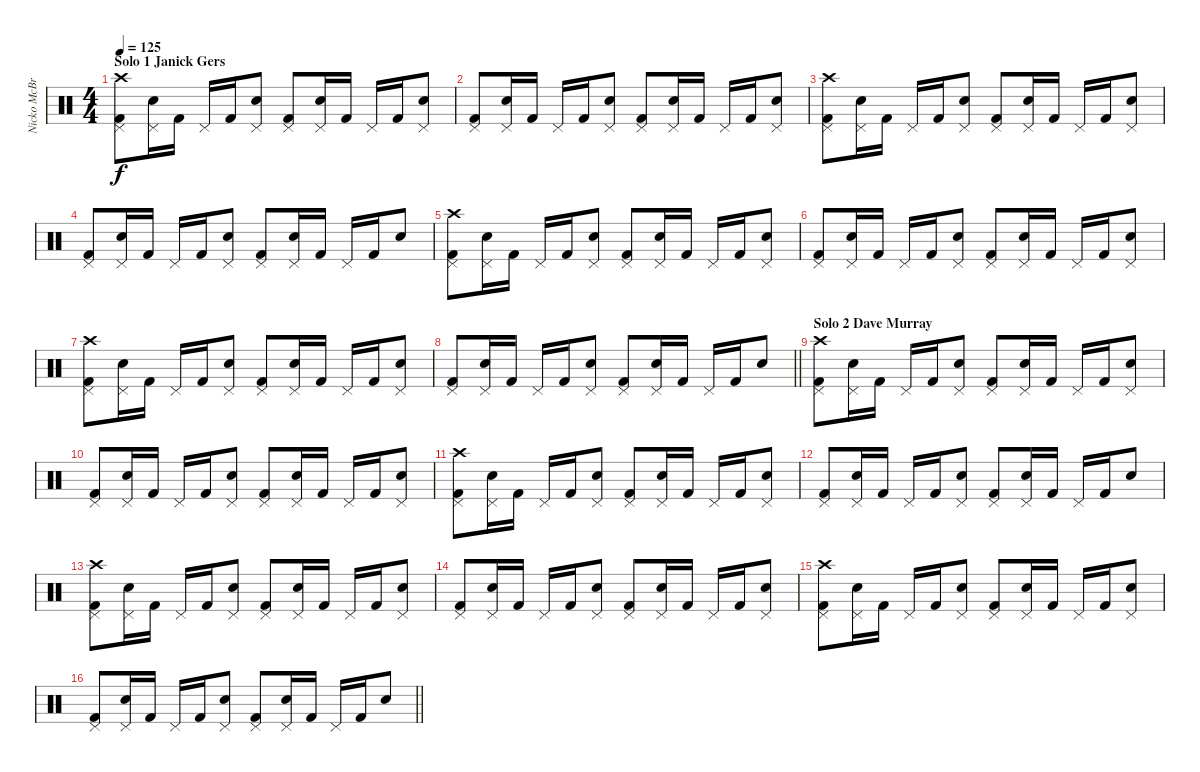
\track ("Nicko McBrain" "Nicko McBr") {instrument percussion}
\staff {score}
\articulation defaults
\ts (4 4)
\section ("" "Solo 1 Janick Gers")
\tempo 125
\clef neutral
\ks c
("Kick (hit) 2" "Pedal Hi-Hat (hit)" "Crash high (hit)").8{dy f} ("Snare (hit) 2" "Pedal Hi-Hat (hit)").16 "Kick (hit) 2".16 "Pedal Hi-Hat (hit)".16 "Kick (hit) 2".16 ("Snare (hit) 2" "Pedal Hi-Hat (hit)").8 ("Kick (hit) 2" "Pedal Hi-Hat (hit)").8 ("Snare (hit) 2" "Pedal Hi-Hat (hit)").16 "Kick (hit) 2".16 "Pedal Hi-Hat (hit)".16 "Kick (hit) 2".16 ("Snare (hit) 2" "Pedal Hi-Hat (hit)").8 |
("Kick (hit) 2" "Pedal Hi-Hat (hit)").8 ("Snare (hit) 2" "Pedal Hi-Hat (hit)").16 "Kick (hit) 2".16 "Pedal Hi-Hat (hit)".16 "Kick (hit) 2".16 ("Snare (hit) 2" "Pedal Hi-Hat (hit)").8 ("Kick (hit) 2" "Pedal Hi-Hat (hit)").8 ("Snare (hit) 2" "Pedal Hi-Hat (hit)").16 "Kick (hit) 2".16 "Pedal Hi-Hat (hit)".16 "Kick (hit) 2".16 ("Snare (hit) 2" "Pedal Hi-Hat (hit)").8 |
("Kick (hit) 2" "Pedal Hi-Hat (hit)" "Crash high (hit)").8 ("Snare (hit) 2" "Pedal Hi-Hat (hit)").16 "Kick (hit) 2".16 "Pedal Hi-Hat (hit)".16 "Kick (hit) 2".16 ("Snare (hit) 2" "Pedal Hi-Hat (hit)").8 ("Kick (hit) 2" "Pedal Hi-Hat (hit)").8 ("Snare (hit) 2" "Pedal Hi-Hat (hit)").16 "Kick (hit) 2".16 "Pedal Hi-Hat (hit)".16 "Kick (hit) 2".16 ("Snare (hit) 2" "Pedal Hi-Hat (hit)").8 |
("Kick (hit) 2" "Pedal Hi-Hat (hit)").8 ("Snare (hit) 2" "Pedal Hi-Hat (hit)").16 "Kick (hit) 2".16 "Pedal Hi-Hat (hit)".16 "Kick (hit) 2".16 ("Snare (hit) 2" "Pedal Hi-Hat (hit)").8 ("Kick (hit) 2" "Pedal Hi-Hat (hit)").8 ("Snare (hit) 2" "Pedal Hi-Hat (hit)").16 "Kick (hit) 2".16 "Pedal Hi-Hat (hit)".16 "Kick (hit) 2".16 "Snare (hit) 2".8 |
("Kick (hit) 2" "Pedal Hi-Hat (hit)" "Crash high (hit)").8 ("Snare (hit) 2" "Pedal Hi-Hat (hit)").16 "Kick (hit) 2".16 "Pedal Hi-Hat (hit)".16 "Kick (hit) 2".16 ("Snare (hit) 2" "Pedal Hi-Hat (hit)").8 ("Kick (hit) 2" "Pedal Hi-Hat (hit)").8 ("Snare (hit) 2" "Pedal Hi-Hat (hit)").16 "Kick (hit) 2".16 "Pedal Hi-Hat (hit)".16 "Kick (hit) 2".16 ("Snare (hit) 2" "Pedal Hi-Hat (hit)").8 |
("Kick (hit) 2" "Pedal Hi-Hat (hit)").8 ("Snare (hit) 2" "Pedal Hi-Hat (hit)").16 "Kick (hit) 2".16 "Pedal Hi-Hat (hit)".16 "Kick (hit) 2".16 ("Snare (hit) 2" "Pedal Hi-Hat (hit)").8 ("Kick (hit) 2" "Pedal Hi-Hat (hit)").8 ("Snare (hit) 2" "Pedal Hi-Hat (hit)").16 "Kick (hit) 2".16 "Pedal Hi-Hat (hit)".16 "Kick (hit) 2".16 ("Snare (hit) 2" "Pedal Hi-Hat (hit)").8 |
("Kick (hit) 2" "Pedal Hi-Hat (hit)" "Crash high (hit)").8 ("Snare (hit) 2" "Pedal Hi-Hat (hit)").16 "Kick (hit) 2".16 "Pedal Hi-Hat (hit)".16 "Kick (hit) 2".16 ("Snare (hit) 2" "Pedal Hi-Hat (hit)").8 ("Kick (hit) 2" "Pedal Hi-Hat (hit)").8 ("Snare (hit) 2" "Pedal Hi-Hat (hit)").16 "Kick (hit) 2".16 "Pedal Hi-Hat (hit)".16 "Kick (hit) 2".16 ("Snare (hit) 2" "Pedal Hi-Hat (hit)").8 |
\barLineRight lightlight
("Kick (hit) 2" "Pedal Hi-Hat (hit)").8 ("Snare (hit) 2" "Pedal Hi-Hat (hit)").16 "Kick (hit) 2".16 "Pedal Hi-Hat (hit)".16 "Kick (hit) 2".16 ("Snare (hit) 2" "Pedal Hi-Hat (hit)").8 ("Kick (hit) 2" "Pedal Hi-Hat (hit)").8 ("Snare (hit) 2" "Pedal Hi-Hat (hit)").16 "Kick (hit) 2".16 "Pedal Hi-Hat (hit)".16 "Kick (hit) 2".16 "Snare (hit) 2".8 |
\section ("" "Solo 2 Dave Murray")
("Kick (hit) 2" "Pedal Hi-Hat (hit)" "Crash high (hit)").8 ("Snare (hit) 2" "Pedal Hi-Hat (hit)").16 "Kick (hit) 2".16 "Pedal Hi-Hat (hit)".16 "Kick (hit) 2".16 ("Snare (hit) 2" "Pedal Hi-Hat (hit)").8 ("Kick (hit) 2" "Pedal Hi-Hat (hit)").8 ("Snare (hit) 2" "Pedal Hi-Hat (hit)").16 "Kick (hit) 2".16 "Pedal Hi-Hat (hit)".16 "Kick (hit) 2".16 ("Snare (hit) 2" "Pedal Hi-Hat (hit)").8 |
("Kick (hit) 2" "Pedal Hi-Hat (hit)").8 ("Snare (hit) 2" "Pedal Hi-Hat (hit)").16 "Kick (hit) 2".16 "Pedal Hi-Hat (hit)".16 "Kick (hit) 2".16 ("Snare (hit) 2" "Pedal Hi-Hat (hit)").8 ("Kick (hit) 2" "Pedal Hi-Hat (hit)").8 ("Snare (hit) 2" "Pedal Hi-Hat (hit)").16 "Kick (hit) 2".16 "Pedal Hi-Hat (hit)".16 "Kick (hit) 2".16 ("Snare (hit) 2" "Pedal Hi-Hat (hit)").8 |
("Kick (hit) 2" "Pedal Hi-Hat (hit)" "Crash high (hit)").8 ("Snare (hit) 2" "Pedal Hi-Hat (hit)").16 "Kick (hit) 2".16 "Pedal Hi-Hat (hit)".16 "Kick (hit) 2".16 ("Snare (hit) 2" "Pedal Hi-Hat (hit)").8 ("Kick (hit) 2" "Pedal Hi-Hat (hit)").8 ("Snare (hit) 2" "Pedal Hi-Hat (hit)").16 "Kick (hit) 2".16 "Pedal Hi-Hat (hit)".16 "Kick (hit) 2".16 ("Snare (hit) 2" "Pedal Hi-Hat (hit)").8 |
("Kick (hit) 2" "Pedal Hi-Hat (hit)").8 ("Snare (hit) 2" "Pedal Hi-Hat (hit)").16 "Kick (hit) 2".16 "Pedal Hi-Hat (hit)".16 "Kick (hit) 2".16 ("Snare (hit) 2" "Pedal Hi-Hat (hit)").8 ("Kick (hit) 2" "Pedal Hi-Hat (hit)").8 ("Snare (hit) 2" "Pedal Hi-Hat (hit)").16 "Kick (hit) 2".16 "Pedal Hi-Hat (hit)".16 "Kick (hit) 2".16 "Snare (hit) 2".8 |
("Kick (hit) 2" "Pedal Hi-Hat (hit)" "Crash high (hit)").8 ("Snare (hit) 2" "Pedal Hi-Hat (hit)").16 "Kick (hit) 2".16 "Pedal Hi-Hat (hit)".16 "Kick (hit) 2".16 ("Snare (hit) 2" "Pedal Hi-Hat (hit)").8 ("Kick (hit) 2" "Pedal Hi-Hat (hit)").8 ("Snare (hit) 2" "Pedal Hi-Hat (hit)").16 "Kick (hit) 2".16 "Pedal Hi-Hat (hit)".16 "Kick (hit) 2".16 ("Snare (hit) 2" "Pedal Hi-Hat (hit)").8 |
("Kick (hit) 2" "Pedal Hi-Hat (hit)").8 ("Snare (hit) 2" "Pedal Hi-Hat (hit)").16 "Kick (hit) 2".16 "Pedal Hi-Hat (hit)".16 "Kick (hit) 2".16 ("Snare (hit) 2" "Pedal Hi-Hat (hit)").8 ("Kick (hit) 2" "Pedal Hi-Hat (hit)").8 ("Snare (hit) 2" "Pedal Hi-Hat (hit)").16 "Kick (hit) 2".16 "Pedal Hi-Hat (hit)".16 "Kick (hit) 2".16 ("Snare (hit) 2" "Pedal Hi-Hat (hit)").8 |
("Kick (hit) 2" "Pedal Hi-Hat (hit)" "Crash high (hit)").8 ("Snare (hit) 2" "Pedal Hi-Hat (hit)").16 "Kick (hit) 2".16 "Pedal Hi-Hat (hit)".16 "Kick (hit) 2".16 ("Snare (hit) 2" "Pedal Hi-Hat (hit)").8 ("Kick (hit) 2" "Pedal Hi-Hat (hit)").8 ("Snare (hit) 2" "Pedal Hi-Hat (hit)").16 "Kick (hit) 2".16 "Pedal Hi-Hat (hit)".16 "Kick (hit) 2".16 ("Snare (hit) 2" "Pedal Hi-Hat (hit)").8 |
\barLineRight lightlight
("Kick (hit) 2" "Pedal Hi-Hat (hit)").8 ("Snare (hit) 2" "Pedal Hi-Hat (hit)").16 "Kick (hit) 2".16 "Pedal Hi-Hat (hit)".16 "Kick (hit) 2".16 ("Snare (hit) 2" "Pedal Hi-Hat (hit)").8 ("Kick (hit) 2" "Pedal Hi-Hat (hit)").8 ("Snare (hit) 2" "Pedal Hi-Hat (hit)").16 "Kick (hit) 2".16 "Pedal Hi-Hat (hit)".16 "Kick (hit) 2".16 "Snare (hit) 2".8
